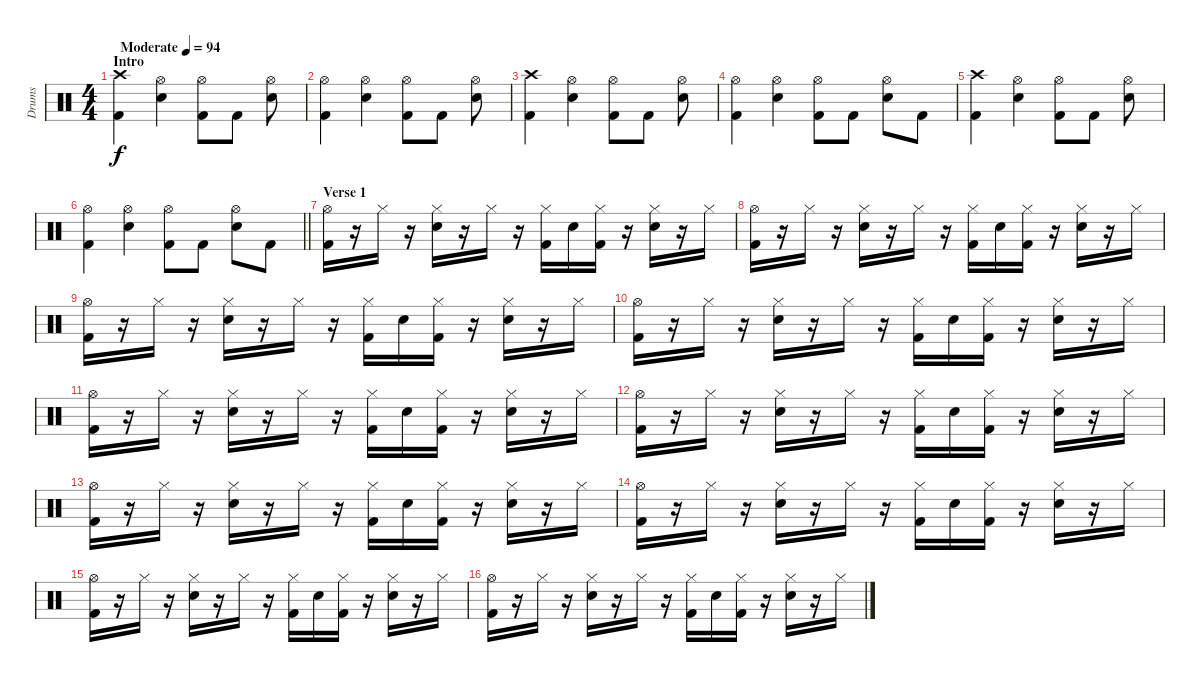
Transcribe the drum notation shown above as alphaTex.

\track ("Drums" "Drums") {instrument percussion}
\staff {score}
\articulation defaults
\ts (4 4)
\section ("" "Intro")
\tempo (94 "Moderate")
\clef neutral
\ks c
("Kick (hit) 2" "Crash high (hit)").4{dy f} ("Snare (hit) 2" "Hi-Hat (open)").4 ("Kick (hit) 2" "Hi-Hat (open)").8 "Kick (hit) 2".8 ("Snare (hit) 2" "Hi-Hat (open)").8 |
("Kick (hit) 2" "Hi-Hat (open)").4 ("Snare (hit) 2" "Hi-Hat (open)").4 ("Kick (hit) 2" "Hi-Hat (open)").8 "Kick (hit) 2".8 ("Snare (hit) 2" "Hi-Hat (open)").8 |
("Kick (hit) 2" "Crash high (hit)").4 ("Snare (hit) 2" "Hi-Hat (open)").4 ("Kick (hit) 2" "Hi-Hat (open)").8 "Kick (hit) 2".8 ("Snare (hit) 2" "Hi-Hat (open)").8 |
("Kick (hit) 2" "Hi-Hat (open)").4 ("Snare (hit) 2" "Hi-Hat (open)").4 ("Kick (hit) 2" "Hi-Hat (open)").8 "Kick (hit) 2".8 ("Snare (hit) 2" "Hi-Hat (open)").8 "Kick (hit) 2".8 |
("Kick (hit) 2" "Crash high (hit)").4 ("Snare (hit) 2" "Hi-Hat (open)").4 ("Kick (hit) 2" "Hi-Hat (open)").8 "Kick (hit) 2".8 ("Snare (hit) 2" "Hi-Hat (open)").8 |
\barLineRight lightlight
("Kick (hit) 2" "Hi-Hat (open)").4 ("Snare (hit) 2" "Hi-Hat (open)").4 ("Kick (hit) 2" "Hi-Hat (open)").8 "Kick (hit) 2".8 ("Snare (hit) 2" "Hi-Hat (open)").8 "Kick (hit) 2".8 |
\section ("" "Verse 1")
("Kick (hit) 2" "Hi-Hat (open)").16 r.16 "Hi-Hat (closed)".16 r.16 ("Snare (hit) 2" "Hi-Hat (closed)").16 r.16 "Hi-Hat (closed)".16 r.16 ("Kick (hit) 2" "Hi-Hat (closed)").16 "Snare (hit) 2".16 ("Kick (hit) 2" "Hi-Hat (closed)").16 r.16 ("Snare (hit) 2" "Hi-Hat (closed)").16 r.16 "Hi-Hat (closed)".16 |
("Kick (hit) 2" "Hi-Hat (open)").16 r.16 "Hi-Hat (closed)".16 r.16 ("Snare (hit) 2" "Hi-Hat (closed)").16 r.16 "Hi-Hat (closed)".16 r.16 ("Kick (hit) 2" "Hi-Hat (closed)").16 "Snare (hit) 2".16 ("Kick (hit) 2" "Hi-Hat (closed)").16 r.16 ("Snare (hit) 2" "Hi-Hat (closed)").16 r.16 "Hi-Hat (closed)".16 |
("Kick (hit) 2" "Hi-Hat (open)").16 r.16 "Hi-Hat (closed)".16 r.16 ("Snare (hit) 2" "Hi-Hat (closed)").16 r.16 "Hi-Hat (closed)".16 r.16 ("Kick (hit) 2" "Hi-Hat (closed)").16 "Snare (hit) 2".16 ("Kick (hit) 2" "Hi-Hat (closed)").16 r.16 ("Snare (hit) 2" "Hi-Hat (closed)").16 r.16 "Hi-Hat (closed)".16 |
("Kick (hit) 2" "Hi-Hat (open)").16 r.16 "Hi-Hat (closed)".16 r.16 ("Snare (hit) 2" "Hi-Hat (closed)").16 r.16 "Hi-Hat (closed)".16 r.16 ("Kick (hit) 2" "Hi-Hat (closed)").16 "Snare (hit) 2".16 ("Kick (hit) 2" "Hi-Hat (closed)").16 r.16 ("Snare (hit) 2" "Hi-Hat (closed)").16 r.16 "Hi-Hat (closed)".16 |
("Kick (hit) 2" "Hi-Hat (open)").16 r.16 "Hi-Hat (closed)".16 r.16 ("Snare (hit) 2" "Hi-Hat (closed)").16 r.16 "Hi-Hat (closed)".16 r.16 ("Kick (hit) 2" "Hi-Hat (closed)").16 "Snare (hit) 2".16 ("Kick (hit) 2" "Hi-Hat (closed)").16 r.16 ("Snare (hit) 2" "Hi-Hat (closed)").16 r.16 "Hi-Hat (closed)".16 |
("Kick (hit) 2" "Hi-Hat (open)").16 r.16 "Hi-Hat (closed)".16 r.16 ("Snare (hit) 2" "Hi-Hat (closed)").16 r.16 "Hi-Hat (closed)".16 r.16 ("Kick (hit) 2" "Hi-Hat (closed)").16 "Snare (hit) 2".16 ("Kick (hit) 2" "Hi-Hat (closed)").16 r.16 ("Snare (hit) 2" "Hi-Hat (closed)").16 r.16 "Hi-Hat (closed)".16 |
("Kick (hit) 2" "Hi-Hat (open)").16 r.16 "Hi-Hat (closed)".16 r.16 ("Snare (hit) 2" "Hi-Hat (closed)").16 r.16 "Hi-Hat (closed)".16 r.16 ("Kick (hit) 2" "Hi-Hat (closed)").16 "Snare (hit) 2".16 ("Kick (hit) 2" "Hi-Hat (closed)").16 r.16 ("Snare (hit) 2" "Hi-Hat (closed)").16 r.16 "Hi-Hat (closed)".16 |
("Kick (hit) 2" "Hi-Hat (open)").16 r.16 "Hi-Hat (closed)".16 r.16 ("Snare (hit) 2" "Hi-Hat (closed)").16 r.16 "Hi-Hat (closed)".16 r.16 ("Kick (hit) 2" "Hi-Hat (closed)").16 "Snare (hit) 2".16 ("Kick (hit) 2" "Hi-Hat (closed)").16 r.16 ("Snare (hit) 2" "Hi-Hat (closed)").16 r.16 "Hi-Hat (closed)".16 |
("Kick (hit) 2" "Hi-Hat (open)").16 r.16 "Hi-Hat (closed)".16 r.16 ("Snare (hit) 2" "Hi-Hat (closed)").16 r.16 "Hi-Hat (closed)".16 r.16 ("Kick (hit) 2" "Hi-Hat (closed)").16 "Snare (hit) 2".16 ("Kick (hit) 2" "Hi-Hat (closed)").16 r.16 ("Snare (hit) 2" "Hi-Hat (closed)").16 r.16 "Hi-Hat (closed)".16 |
("Kick (hit) 2" "Hi-Hat (open)").16 r.16 "Hi-Hat (closed)".16 r.16 ("Snare (hit) 2" "Hi-Hat (closed)").16 r.16 "Hi-Hat (closed)".16 r.16 ("Kick (hit) 2" "Hi-Hat (closed)").16 "Snare (hit) 2".16 ("Kick (hit) 2" "Hi-Hat (closed)").16 r.16 ("Snare (hit) 2" "Hi-Hat (closed)").16 r.16 "Hi-Hat (closed)".16
